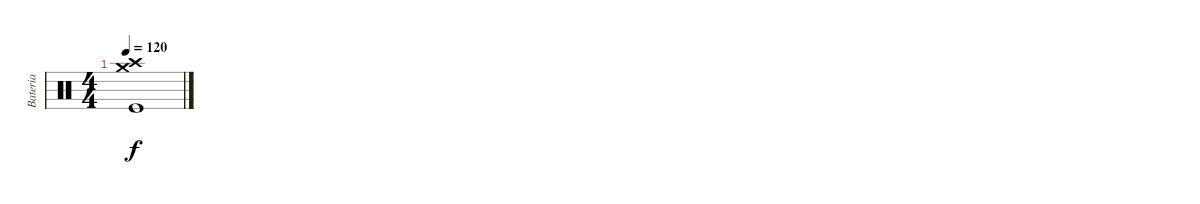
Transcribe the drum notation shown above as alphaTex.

\track ("Bateria" "Bateria") {instrument percussion}
\staff {score}
\articulation defaults
\ts (4 4)
\tempo 120
\clef neutral
\ks c
("Crash medium (hit)" "Crash high (hit)" "Kick (hit)").1{dy f}
